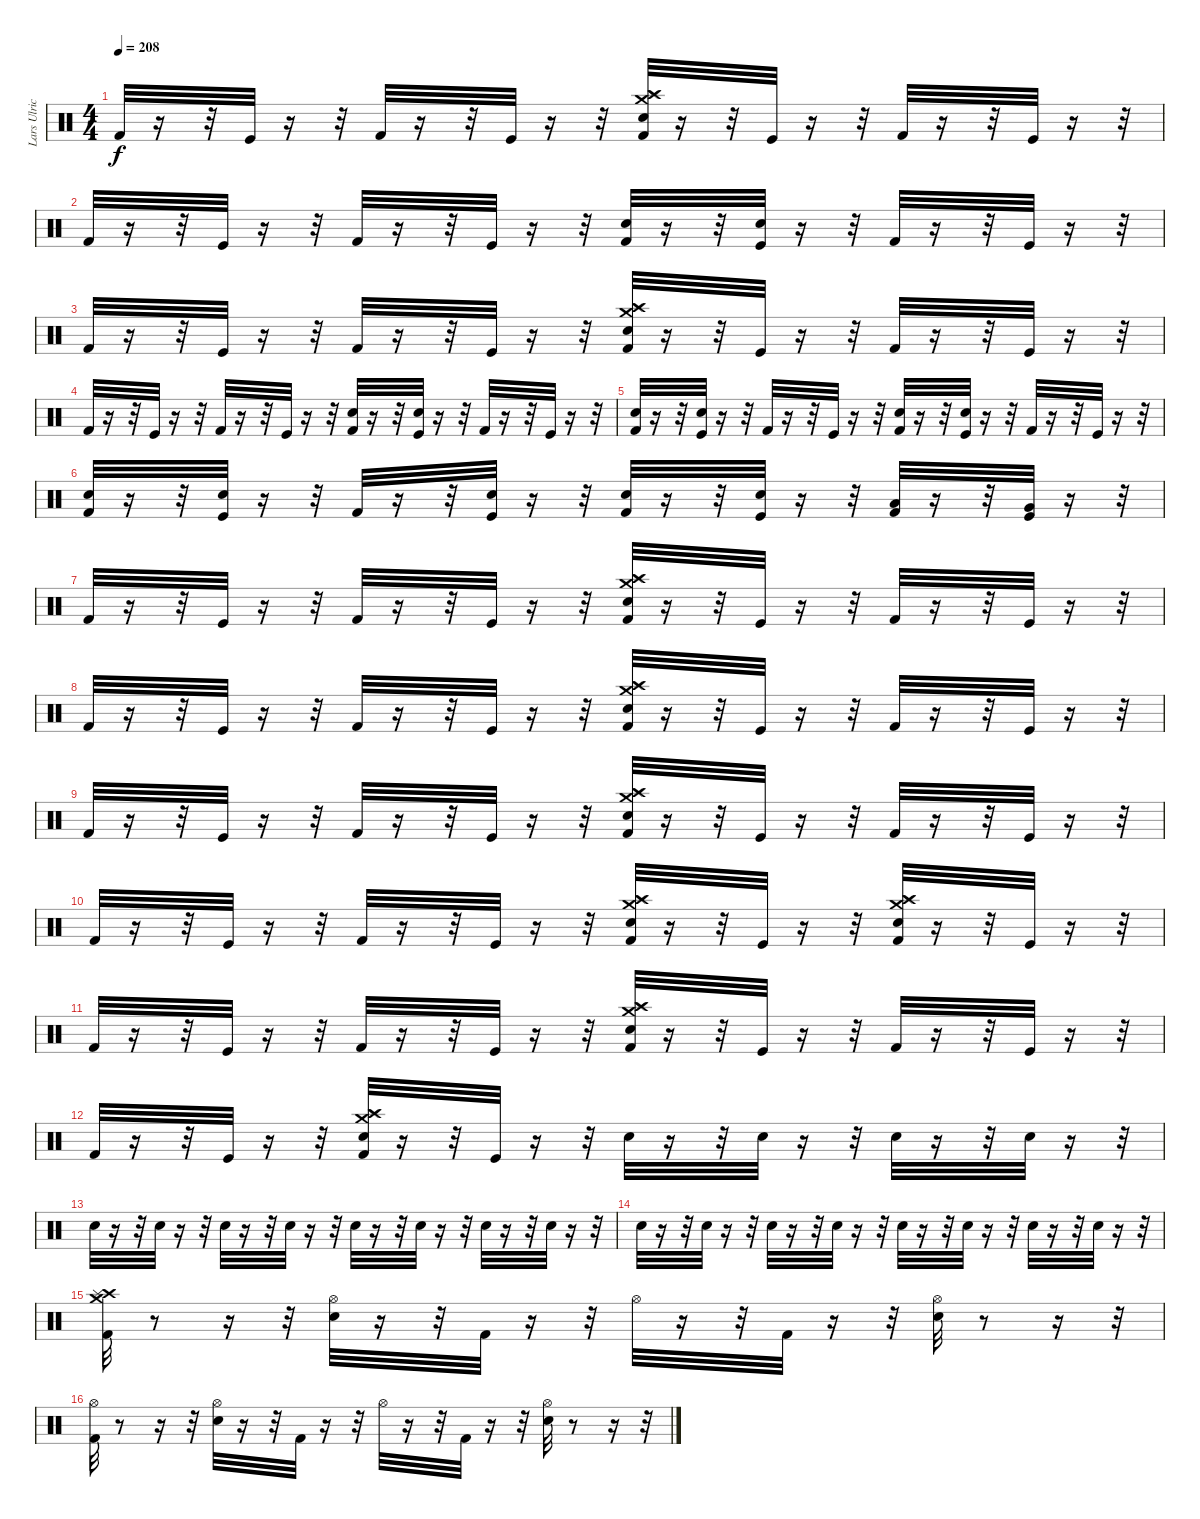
\track ("Lars Ulrich (Drums)" "Lars Ulric") {instrument percussion}
\staff {score}
\articulation defaults
\ts (4 4)
\tempo 208
\clef neutral
\ks c "Kick (hit) 2".32{dy f}
r.16 r.32 "Kick (hit)".32 r.16 r.32 "Kick (hit) 2".32 r.16 r.32 "Kick (hit)".32 r.16 r.32 ("Crash medium (hit)" "Splash (hit)" "Crash high (hit)" "Snare (hit) 2" "Kick (hit) 2").32 r.16 r.32 "Kick (hit)".32 r.16 r.32 "Kick (hit) 2".32 r.16 r.32 "Kick (hit)".32 r.16 r.32 |
"Kick (hit) 2".32 r.16 r.32 "Kick (hit)".32 r.16 r.32 "Kick (hit) 2".32 r.16 r.32 "Kick (hit)".32 r.16 r.32 ("Snare (hit) 2" "Kick (hit) 2").32 r.16 r.32 ("Snare (hit) 2" "Kick (hit)").32 r.16 r.32 "Kick (hit) 2".32 r.16 r.32 "Kick (hit)".32 r.16 r.32 |
"Kick (hit) 2".32 r.16 r.32 "Kick (hit)".32 r.16 r.32 "Kick (hit) 2".32 r.16 r.32 "Kick (hit)".32 r.16 r.32 ("Crash medium (hit)" "Splash (hit)" "Crash high (hit)" "Snare (hit) 2" "Kick (hit) 2").32 r.16 r.32 "Kick (hit)".32 r.16 r.32 "Kick (hit) 2".32 r.16 r.32 "Kick (hit)".32 r.16 r.32 |
"Kick (hit) 2".32 r.16 r.32 "Kick (hit)".32 r.16 r.32 "Kick (hit) 2".32 r.16 r.32 "Kick (hit)".32 r.16 r.32 ("Snare (hit) 2" "Kick (hit) 2").32 r.16 r.32 ("Snare (hit) 2" "Kick (hit)").32 r.16 r.32 "Kick (hit) 2".32 r.16 r.32 "Kick (hit)".32 r.16 r.32 |
("Snare (hit) 2" "Kick (hit) 2").32 r.16 r.32 ("Snare (hit) 2" "Kick (hit)").32 r.16 r.32 "Kick (hit) 2".32 r.16 r.32 "Kick (hit)".32 r.16 r.32 ("Snare (hit) 2" "Kick (hit) 2").32 r.16 r.32 ("Snare (hit) 2" "Kick (hit)").32 r.16 r.32 "Kick (hit) 2".32 r.16 r.32 "Kick (hit)".32 r.16 r.32 |
("Snare (hit) 2" "Kick (hit) 2").32 r.16 r.32 ("Snare (hit) 2" "Kick (hit)").32 r.16 r.32 "Kick (hit) 2".32 r.16 r.32 ("Snare (hit) 2" "Kick (hit)").32 r.16 r.32 ("Snare (hit) 2" "Kick (hit) 2").32 r.16 r.32 ("Snare (hit) 2" "Kick (hit)").32 r.16 r.32 ("Low Tom (hit)" "Kick (hit) 2").32 r.16 r.32 ("Very Low Tom (hit)" "Kick (hit)").32 r.16 r.32 |
"Kick (hit) 2".32 r.16 r.32 "Kick (hit)".32 r.16 r.32 "Kick (hit) 2".32 r.16 r.32 "Kick (hit)".32 r.16 r.32 ("Crash medium (hit)" "Splash (hit)" "Crash high (hit)" "Snare (hit) 2" "Kick (hit) 2").32 r.16 r.32 "Kick (hit)".32 r.16 r.32 "Kick (hit) 2".32 r.16 r.32 "Kick (hit)".32 r.16 r.32 |
"Kick (hit) 2".32 r.16 r.32 "Kick (hit)".32 r.16 r.32 "Kick (hit) 2".32 r.16 r.32 "Kick (hit)".32 r.16 r.32 ("Crash medium (hit)" "Splash (hit)" "Crash high (hit)" "Snare (hit) 2" "Kick (hit) 2").32 r.16 r.32 "Kick (hit)".32 r.16 r.32 "Kick (hit) 2".32 r.16 r.32 "Kick (hit)".32 r.16 r.32 |
"Kick (hit) 2".32 r.16 r.32 "Kick (hit)".32 r.16 r.32 "Kick (hit) 2".32 r.16 r.32 "Kick (hit)".32 r.16 r.32 ("Crash medium (hit)" "Splash (hit)" "Crash high (hit)" "Snare (hit) 2" "Kick (hit) 2").32 r.16 r.32 "Kick (hit)".32 r.16 r.32 "Kick (hit) 2".32 r.16 r.32 "Kick (hit)".32 r.16 r.32 |
"Kick (hit) 2".32 r.16 r.32 "Kick (hit)".32 r.16 r.32 "Kick (hit) 2".32 r.16 r.32 "Kick (hit)".32 r.16 r.32 ("Crash medium (hit)" "Splash (hit)" "Crash high (hit)" "Snare (hit) 2" "Kick (hit) 2").32 r.16 r.32 "Kick (hit)".32 r.16 r.32 ("Crash medium (hit)" "Splash (hit)" "Crash high (hit)" "Snare (hit) 2" "Kick (hit) 2").32 r.16 r.32 "Kick (hit)".32 r.16 r.32 |
"Kick (hit) 2".32 r.16 r.32 "Kick (hit)".32 r.16 r.32 "Kick (hit) 2".32 r.16 r.32 "Kick (hit)".32 r.16 r.32 ("Crash medium (hit)" "Splash (hit)" "Crash high (hit)" "Snare (hit) 2" "Kick (hit) 2").32 r.16 r.32 "Kick (hit)".32 r.16 r.32 "Kick (hit) 2".32 r.16 r.32 "Kick (hit)".32 r.16 r.32 |
"Kick (hit) 2".32 r.16 r.32 "Kick (hit)".32 r.16 r.32 ("Crash medium (hit)" "Splash (hit)" "Crash high (hit)" "Snare (hit) 2" "Kick (hit) 2").32 r.16 r.32 "Kick (hit)".32 r.16 r.32 "Snare (hit) 2".32 r.16 r.32 "Snare (hit) 2".32 r.16 r.32 "Snare (hit) 2".32 r.16 r.32 "Snare (hit) 2".32 r.16 r.32 |
"Snare (hit) 2".32 r.16 r.32 "Snare (hit) 2".32 r.16 r.32 "Snare (hit) 2".32 r.16 r.32 "Snare (hit) 2".32 r.16 r.32 "Snare (hit) 2".32 r.16 r.32 "Snare (hit) 2".32 r.16 r.32 "Snare (hit) 2".32 r.16 r.32 "Snare (hit) 2".32 r.16 r.32 |
"Snare (hit) 2".32 r.16 r.32 "Snare (hit) 2".32 r.16 r.32 "Snare (hit) 2".32 r.16 r.32 "Snare (hit) 2".32 r.16 r.32 "Snare (hit) 2".32 r.16 r.32 "Snare (hit) 2".32 r.16 r.32 "Snare (hit) 2".32 r.16 r.32 "Snare (hit) 2".32 r.16 r.32 |
("Kick (hit) 2" "Crash high (hit)" "Crash medium (hit)" "Splash (hit)").32 r.8 r.16 r.32 ("Snare (hit) 2" "Hi-Hat (open)").32 r.16 r.32 "Kick (hit) 2".32 r.16 r.32 "Hi-Hat (open)".32 r.16 r.32 "Kick (hit) 2".32 r.16 r.32 ("Snare (hit) 2" "Hi-Hat (open)").32 r.8 r.16 r.32 |
("Kick (hit) 2" "Hi-Hat (open)").32 r.8 r.16 r.32 ("Snare (hit) 2" "Hi-Hat (open)").32 r.16 r.32 "Kick (hit) 2".32 r.16 r.32 "Hi-Hat (open)".32 r.16 r.32 "Kick (hit) 2".32 r.16 r.32 ("Snare (hit) 2" "Hi-Hat (open)").32 r.8 r.16 r.32
